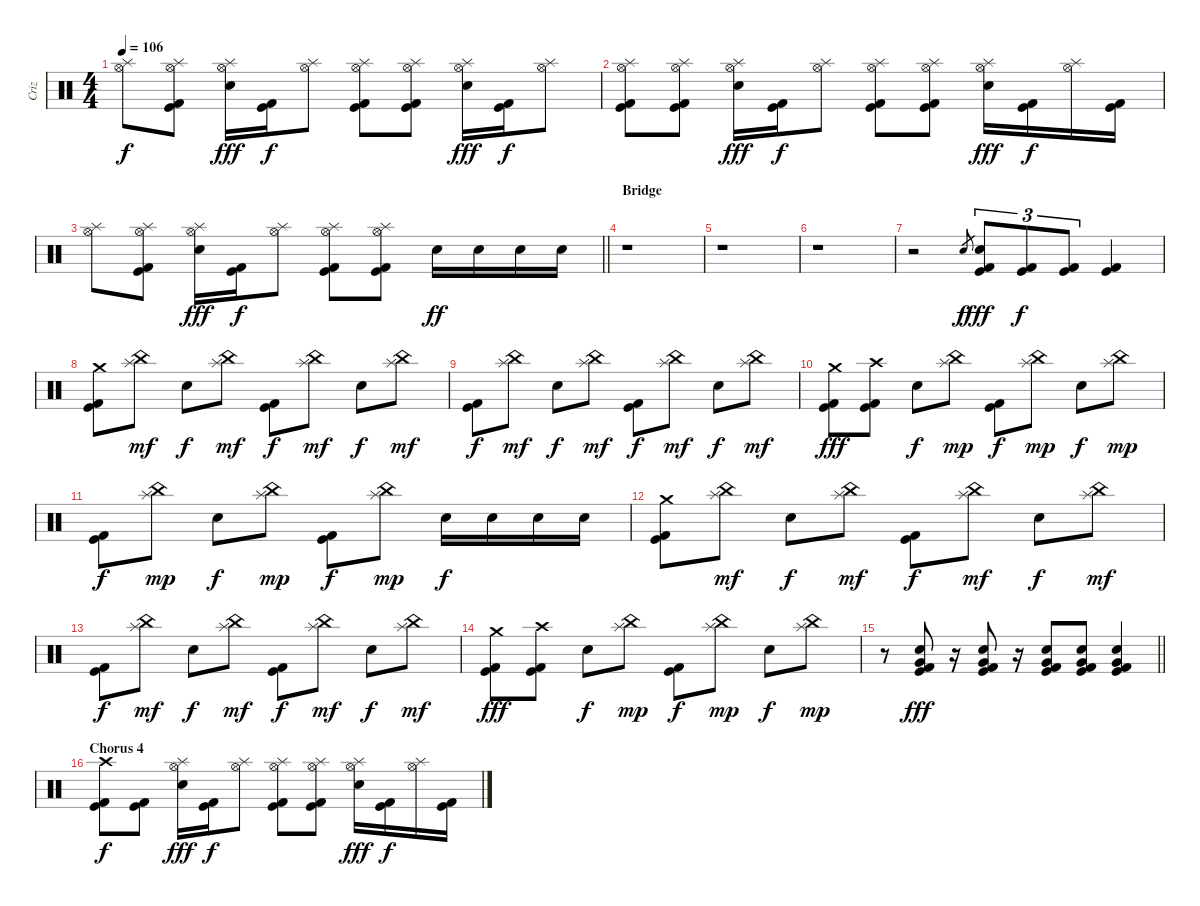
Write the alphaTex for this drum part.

\track ("Criz" "Criz") {instrument percussion}
\staff {score}
\articulation defaults
\ts (4 4)
\tempo 106
\clef neutral
\ks c
("Splash (hit)" "Hi-Hat (open)").8{dy f} ("Splash (hit)" "Hi-Hat (open)" "Kick (hit)" "Kick (hit) 2").8 ("Splash (hit)" "Hi-Hat (open)" "Snare (hit) 2").16{dy fff} ("Kick (hit)" "Kick (hit) 2").16{dy f} ("Splash (hit)" "Hi-Hat (open)").8 ("Splash (hit)" "Hi-Hat (open)" "Kick (hit)" "Kick (hit) 2").8 ("Splash (hit)" "Hi-Hat (open)" "Kick (hit)" "Kick (hit) 2").8 ("Splash (hit)" "Hi-Hat (open)" "Snare (hit) 2").16{dy fff} ("Kick (hit)" "Kick (hit) 2").16{dy f} ("Splash (hit)" "Hi-Hat (open)").8 |
("Splash (hit)" "Hi-Hat (open)" "Kick (hit)" "Kick (hit) 2").8 ("Splash (hit)" "Hi-Hat (open)" "Kick (hit)" "Kick (hit) 2").8 ("Splash (hit)" "Hi-Hat (open)" "Snare (hit) 2").16{dy fff} ("Kick (hit)" "Kick (hit) 2").16{dy f} ("Splash (hit)" "Hi-Hat (open)").8 ("Splash (hit)" "Hi-Hat (open)" "Kick (hit)" "Kick (hit) 2").8 ("Splash (hit)" "Hi-Hat (open)" "Kick (hit)" "Kick (hit) 2").8 ("Splash (hit)" "Hi-Hat (open)" "Snare (hit) 2").16{dy fff} ("Kick (hit)" "Kick (hit) 2").16{dy f} ("Splash (hit)" "Hi-Hat (open)").16 ("Kick (hit)" "Kick (hit) 2").16 |
\barLineRight lightlight
("Splash (hit)" "Hi-Hat (open)").8 ("Splash (hit)" "Hi-Hat (open)" "Kick (hit)" "Kick (hit) 2").8 ("Splash (hit)" "Hi-Hat (open)" "Snare (hit) 2").16{dy fff} ("Kick (hit)" "Kick (hit) 2").16{dy f} ("Splash (hit)" "Hi-Hat (open)").8 ("Splash (hit)" "Hi-Hat (open)" "Kick (hit)" "Kick (hit) 2").8 ("Splash (hit)" "Hi-Hat (open)" "Kick (hit)" "Kick (hit) 2").8 "Snare (hit) 2".16{dy ff} "Snare (hit) 2".16 "Snare (hit) 2".16 "Snare (hit) 2".16 |
\section ("" "Bridge")
r.1 |
r.1 |
r.1 |
r.2 "Snare (hit) 2".8{gr dy f} ("Snare (hit) 2" "Kick (hit)" "Kick (hit) 2").8{tu (3 2) dy fff} ("Kick (hit)" "Kick (hit) 2").8{tu (3 2) dy f} ("Kick (hit)" "Kick (hit) 2").8{tu (3 2)} ("Kick (hit)" "Kick (hit) 2").4 |
("Crash medium (hit)" "Kick (hit)" "Kick (hit) 2").8 ("Splash (hit)" "China (hit)").8{dy mf} "Snare (hit) 2".8{dy f} ("Splash (hit)" "China (hit)").8{dy mf} ("Kick (hit)" "Kick (hit) 2").8{dy f} ("Splash (hit)" "China (hit)").8{dy mf} "Snare (hit) 2".8{dy f} ("Splash (hit)" "China (hit)").8{dy mf} |
("Kick (hit)" "Kick (hit) 2").8{dy f} ("Splash (hit)" "China (hit)").8{dy mf} "Snare (hit) 2".8{dy f} ("Splash (hit)" "China (hit)").8{dy mf} ("Kick (hit)" "Kick (hit) 2").8{dy f} ("Splash (hit)" "China (hit)").8{dy mf} "Snare (hit) 2".8{dy f} ("Splash (hit)" "China (hit)").8{dy mf} |
("Crash medium (hit)" "Kick (hit)" "Kick (hit) 2").8{dy fff} ("Crash high (hit)" "Kick (hit)" "Kick (hit) 2").8 "Snare (hit) 2".8{dy f} ("Splash (hit)" "China (hit)").8{dy mp} ("Kick (hit)" "Kick (hit) 2").8{dy f} ("Splash (hit)" "China (hit)").8{dy mp} "Snare (hit) 2".8{dy f} ("Splash (hit)" "China (hit)").8{dy mp} |
("Kick (hit)" "Kick (hit) 2").8{dy f} ("Splash (hit)" "China (hit)").8{dy mp} "Snare (hit) 2".8{dy f} ("Splash (hit)" "China (hit)").8{dy mp} ("Kick (hit)" "Kick (hit) 2").8{dy f} ("Splash (hit)" "China (hit)").8{dy mp} "Snare (hit) 2".16{dy f} "Snare (hit) 2".16 "Snare (hit) 2".16 "Snare (hit) 2".16 |
("Crash medium (hit)" "Kick (hit)" "Kick (hit) 2").8 ("Splash (hit)" "China (hit)").8{dy mf} "Snare (hit) 2".8{dy f} ("Splash (hit)" "China (hit)").8{dy mf} ("Kick (hit)" "Kick (hit) 2").8{dy f} ("Splash (hit)" "China (hit)").8{dy mf} "Snare (hit) 2".8{dy f} ("Splash (hit)" "China (hit)").8{dy mf} |
("Kick (hit)" "Kick (hit) 2").8{dy f} ("Splash (hit)" "China (hit)").8{dy mf} "Snare (hit) 2".8{dy f} ("Splash (hit)" "China (hit)").8{dy mf} ("Kick (hit)" "Kick (hit) 2").8{dy f} ("Splash (hit)" "China (hit)").8{dy mf} "Snare (hit) 2".8{dy f} ("Splash (hit)" "China (hit)").8{dy mf} |
("Crash medium (hit)" "Kick (hit)" "Kick (hit) 2").8{dy fff} ("Crash high (hit)" "Kick (hit)" "Kick (hit) 2").8 "Snare (hit) 2".8{dy f} ("Splash (hit)" "China (hit)").8{dy mp} ("Kick (hit)" "Kick (hit) 2").8{dy f} ("Splash (hit)" "China (hit)").8{dy mp} "Snare (hit) 2".8{dy f} ("Splash (hit)" "China (hit)").8{dy mp} |
\barLineRight lightlight
r.8 ("Very Low Tom (hit)" "Snare (hit) 2" "Kick (hit)" "Kick (hit) 2").8{dy fff} r.16 ("Very Low Tom (hit)" "Snare (hit) 2" "Kick (hit)" "Kick (hit) 2").8 r.16 ("Very Low Tom (hit)" "Snare (hit) 2" "Kick (hit)" "Kick (hit) 2").8 ("Very Low Tom (hit)" "Snare (hit) 2" "Kick (hit)" "Kick (hit) 2").8 ("Very Low Tom (hit)" "Snare (hit) 2" "Kick (hit)" "Kick (hit) 2").4 |
\section ("" "Chorus 4")
("Crash high (hit)" "Kick (hit)" "Kick (hit) 2").8{dy f} ("Kick (hit)" "Kick (hit) 2").8 ("Splash (hit)" "Hi-Hat (open)" "Snare (hit) 2").16{dy fff} ("Kick (hit)" "Kick (hit) 2").16{dy f} ("Splash (hit)" "Hi-Hat (open)").8 ("Splash (hit)" "Hi-Hat (open)" "Kick (hit)" "Kick (hit) 2").8 ("Splash (hit)" "Hi-Hat (open)" "Kick (hit)" "Kick (hit) 2").8 ("Splash (hit)" "Hi-Hat (open)" "Snare (hit) 2").16{dy fff} ("Kick (hit)" "Kick (hit) 2").16{dy f} ("Splash (hit)" "Hi-Hat (open)").16 ("Kick (hit)" "Kick (hit) 2").16
